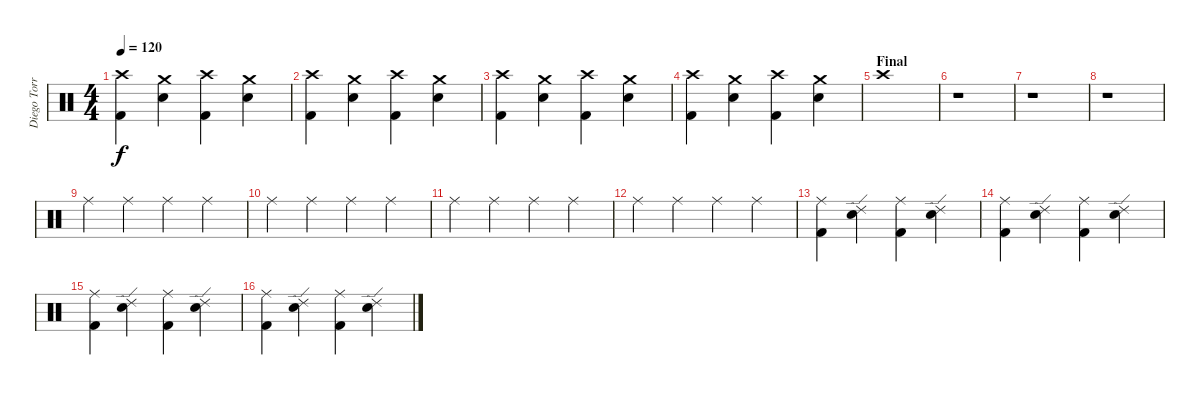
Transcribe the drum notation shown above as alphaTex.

\track ("Diego Torres [Bateria]" "Diego Torr") {instrument percussion}
\staff {score}
\articulation defaults
\ts (4 4)
\tempo 120
\clef neutral
\ks c
("Crash high (hit)" "Kick (hit) 2").4{dy f} ("Crash medium (hit)" "Electric Snare (hit)").4 ("Crash high (hit)" "Kick (hit) 2").4 ("Crash medium (hit)" "Electric Snare (hit)").4 |
("Crash high (hit)" "Kick (hit) 2").4 ("Crash medium (hit)" "Electric Snare (hit)").4 ("Crash high (hit)" "Kick (hit) 2").4 ("Crash medium (hit)" "Electric Snare (hit)").4 |
("Crash high (hit)" "Kick (hit) 2").4 ("Crash medium (hit)" "Electric Snare (hit)").4 ("Crash high (hit)" "Kick (hit) 2").4 ("Crash medium (hit)" "Electric Snare (hit)").4 |
("Crash high (hit)" "Kick (hit) 2").4 ("Crash medium (hit)" "Electric Snare (hit)").4 ("Crash high (hit)" "Kick (hit) 2").4 ("Crash medium (hit)" "Electric Snare (hit)").4 |
\section ("" "Final")
"Crash high (hit)".1 |
r.1 |
r.1 |
r.1 |
"Ride (middle)".4 "Ride (middle)".4 "Ride (middle)".4 "Ride (middle)".4 |
"Ride (middle)".4 "Ride (middle)".4 "Ride (middle)".4 "Ride (middle)".4 |
"Ride (middle)".4 "Ride (middle)".4 "Ride (middle)".4 "Ride (middle)".4 |
"Ride (middle)".4 "Ride (middle)".4 "Ride (middle)".4 "Ride (middle)".4 |
("Ride (middle)" "Kick (hit) 2").4 ("Ride (edge) 2" "Electric Snare (hit)").4 ("Ride (middle)" "Kick (hit) 2").4 ("Ride (edge) 2" "Electric Snare (hit)").4 |
("Ride (middle)" "Kick (hit) 2").4 ("Ride (edge) 2" "Electric Snare (hit)").4 ("Ride (middle)" "Kick (hit) 2").4 ("Ride (edge) 2" "Electric Snare (hit)").4 |
("Ride (middle)" "Kick (hit) 2").4 ("Ride (edge) 2" "Electric Snare (hit)").4 ("Ride (middle)" "Kick (hit) 2").4 ("Ride (edge) 2" "Electric Snare (hit)").4 |
("Ride (middle)" "Kick (hit) 2").4 ("Ride (edge) 2" "Electric Snare (hit)").4 ("Ride (middle)" "Kick (hit) 2").4 ("Ride (edge) 2" "Electric Snare (hit)").4
